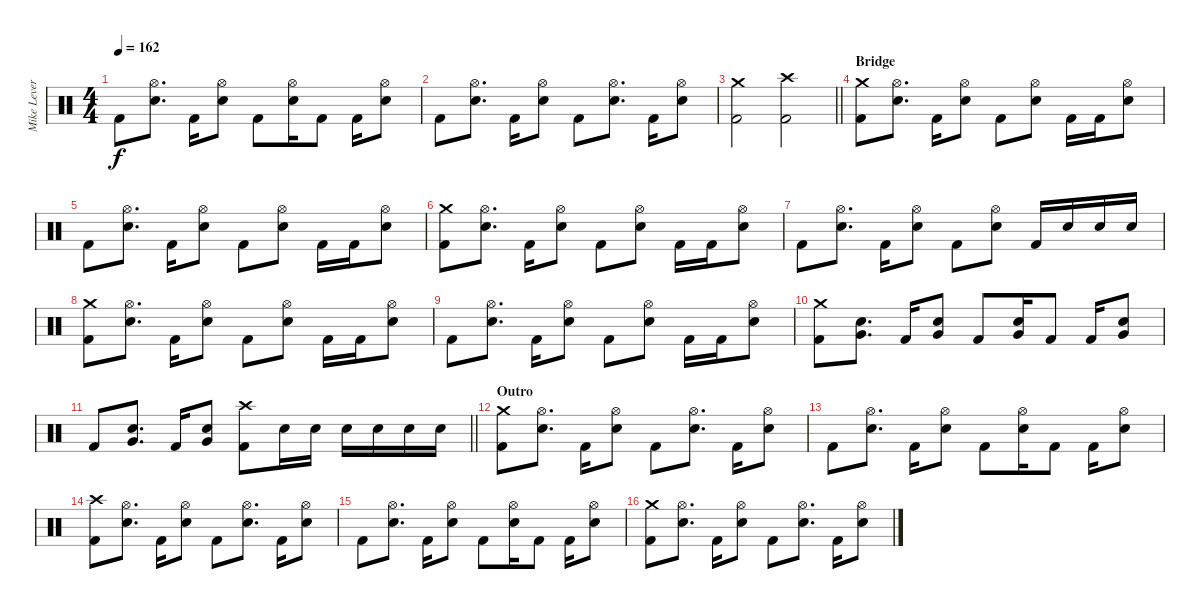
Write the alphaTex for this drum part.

\track ("Mike Leverence - Drums" "Mike Lever") {instrument percussion}
\staff {score}
\articulation defaults
\ts (4 4)
\tempo 162
\clef neutral
\ks c "Kick (hit) 2".8{dy f}
("Hi-Hat (open)" "Electric Snare (hit)").8{d} "Kick (hit) 2".16 ("Hi-Hat (open)" "Electric Snare (hit)").8 "Kick (hit) 2".8 ("Hi-Hat (open)" "Electric Snare (hit)").16 "Kick (hit) 2".8 "Kick (hit) 2".16 ("Hi-Hat (open)" "Electric Snare (hit)").8 |
"Kick (hit) 2".8 ("Hi-Hat (open)" "Electric Snare (hit)").8{d} "Kick (hit) 2".16 ("Hi-Hat (open)" "Electric Snare (hit)").8 "Kick (hit) 2".8 ("Hi-Hat (open)" "Electric Snare (hit)").8{d} "Kick (hit) 2".16 ("Hi-Hat (open)" "Electric Snare (hit)").8 |
\barLineRight lightlight
("Crash medium (hit)" "Kick (hit) 2").2 ("Crash high (hit)" "Kick (hit) 2").2 |
\section ("" "Bridge")
("Crash medium (hit)" "Kick (hit) 2").8 ("Hi-Hat (open)" "Electric Snare (hit)").8{d} "Kick (hit) 2".16 ("Hi-Hat (open)" "Electric Snare (hit)").8 "Kick (hit) 2".8 ("Hi-Hat (open)" "Electric Snare (hit)").8 "Kick (hit) 2".16 "Kick (hit) 2".16 ("Hi-Hat (open)" "Electric Snare (hit)").8 |
"Kick (hit) 2".8 ("Hi-Hat (open)" "Electric Snare (hit)").8{d} "Kick (hit) 2".16 ("Hi-Hat (open)" "Electric Snare (hit)").8 "Kick (hit) 2".8 ("Hi-Hat (open)" "Electric Snare (hit)").8 "Kick (hit) 2".16 "Kick (hit) 2".16 ("Hi-Hat (open)" "Electric Snare (hit)").8 |
("Crash medium (hit)" "Kick (hit) 2").8 ("Hi-Hat (open)" "Electric Snare (hit)").8{d} "Kick (hit) 2".16 ("Hi-Hat (open)" "Electric Snare (hit)").8 "Kick (hit) 2".8 ("Hi-Hat (open)" "Electric Snare (hit)").8 "Kick (hit) 2".16 "Kick (hit) 2".16 ("Hi-Hat (open)" "Electric Snare (hit)").8 |
"Kick (hit) 2".8 ("Hi-Hat (open)" "Electric Snare (hit)").8{d} "Kick (hit) 2".16 ("Hi-Hat (open)" "Electric Snare (hit)").8 "Kick (hit) 2".8 ("Hi-Hat (open)" "Electric Snare (hit)").8 "Kick (hit) 2".16 "Electric Snare (hit)".16 "Electric Snare (hit)".16 "Electric Snare (hit)".16 |
("Crash medium (hit)" "Kick (hit) 2").8 ("Hi-Hat (open)" "Electric Snare (hit)").8{d} "Kick (hit) 2".16 ("Hi-Hat (open)" "Electric Snare (hit)").8 "Kick (hit) 2".8 ("Hi-Hat (open)" "Electric Snare (hit)").8 "Kick (hit) 2".16 "Kick (hit) 2".16 ("Hi-Hat (open)" "Electric Snare (hit)").8 |
"Kick (hit) 2".8 ("Hi-Hat (open)" "Electric Snare (hit)").8{d} "Kick (hit) 2".16 ("Hi-Hat (open)" "Electric Snare (hit)").8 "Kick (hit) 2".8 ("Hi-Hat (open)" "Electric Snare (hit)").8 "Kick (hit) 2".16 "Kick (hit) 2".16 ("Hi-Hat (open)" "Electric Snare (hit)").8 |
("Crash medium (hit)" "Kick (hit) 2").8 ("Very Low Tom (hit)" "Electric Snare (hit)").8{d} "Kick (hit) 2".16 ("Very Low Tom (hit)" "Electric Snare (hit)").8 "Kick (hit) 2".8 ("Very Low Tom (hit)" "Electric Snare (hit)").16 "Kick (hit) 2".8 "Kick (hit) 2".16 ("Very Low Tom (hit)" "Electric Snare (hit)").8 |
\barLineRight lightlight "Kick (hit) 2".8
("Very Low Tom (hit)" "Electric Snare (hit)").8{d} "Kick (hit) 2".16 ("Very Low Tom (hit)" "Electric Snare (hit)").8 ("Crash high (hit)" "Kick (hit) 2").8 "Electric Snare (hit)".16 "Electric Snare (hit)".16 "Electric Snare (hit)".16 "Electric Snare (hit)".16 "Electric Snare (hit)".16 "Electric Snare (hit)".16 |
\section ("" "Outro")
("Crash medium (hit)" "Kick (hit) 2").8 ("Hi-Hat (open)" "Electric Snare (hit)").8{d} "Kick (hit) 2".16 ("Hi-Hat (open)" "Electric Snare (hit)").8 "Kick (hit) 2".8 ("Hi-Hat (open)" "Electric Snare (hit)").8{d} "Kick (hit) 2".16 ("Hi-Hat (open)" "Electric Snare (hit)").8 |
"Kick (hit) 2".8 ("Hi-Hat (open)" "Electric Snare (hit)").8{d} "Kick (hit) 2".16 ("Hi-Hat (open)" "Electric Snare (hit)").8 "Kick (hit) 2".8 ("Hi-Hat (open)" "Electric Snare (hit)").16 "Kick (hit) 2".8 "Kick (hit) 2".16 ("Hi-Hat (open)" "Electric Snare (hit)").8 |
("Crash high (hit)" "Kick (hit) 2").8 ("Hi-Hat (open)" "Electric Snare (hit)").8{d} "Kick (hit) 2".16 ("Hi-Hat (open)" "Electric Snare (hit)").8 "Kick (hit) 2".8 ("Hi-Hat (open)" "Electric Snare (hit)").8{d} "Kick (hit) 2".16 ("Hi-Hat (open)" "Electric Snare (hit)").8 |
"Kick (hit) 2".8 ("Hi-Hat (open)" "Electric Snare (hit)").8{d} "Kick (hit) 2".16 ("Hi-Hat (open)" "Electric Snare (hit)").8 "Kick (hit) 2".8 ("Hi-Hat (open)" "Electric Snare (hit)").16 "Kick (hit) 2".8 "Kick (hit) 2".16 ("Hi-Hat (open)" "Electric Snare (hit)").8 |
("Crash medium (hit)" "Kick (hit) 2").8 ("Hi-Hat (open)" "Electric Snare (hit)").8{d} "Kick (hit) 2".16 ("Hi-Hat (open)" "Electric Snare (hit)").8 "Kick (hit) 2".8 ("Hi-Hat (open)" "Electric Snare (hit)").8{d} "Kick (hit) 2".16 ("Hi-Hat (open)" "Electric Snare (hit)").8
